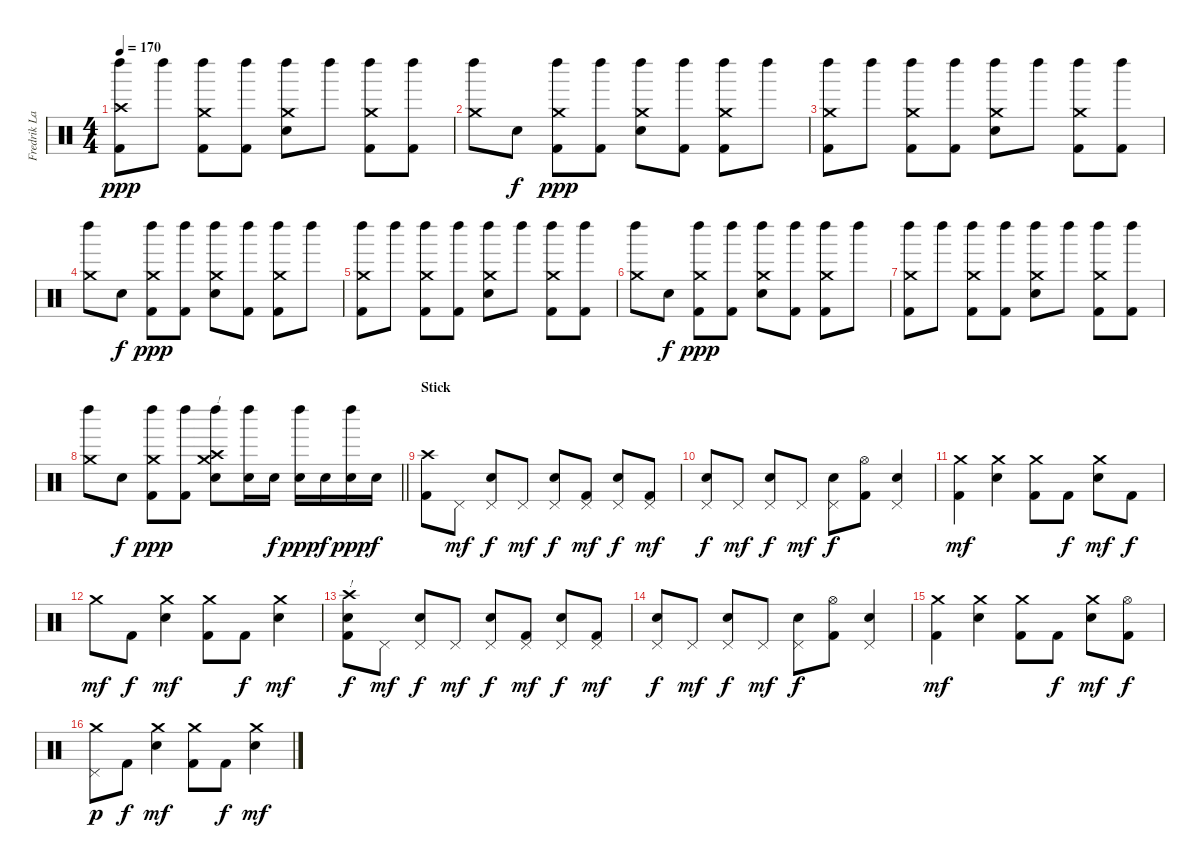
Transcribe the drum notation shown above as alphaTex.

\track ("Fredrik Larzon - Percussion" "Fredrik La") {instrument percussion}
\staff {score}
\articulation defaults
\ts (4 4)
\tempo 170
\clef neutral
\ks c
("Crash high (hit)" "Left Maraca (hit)" "Kick (hit) 2").8{dy ppp} "Left Maraca (hit)".8 ("Crash medium (hit)" "Left Maraca (hit)" "Kick (hit) 2").8 ("Left Maraca (hit)" "Kick (hit) 2").8 ("Crash medium (hit)" "Left Maraca (hit)" "Electric Snare (hit)").8 "Left Maraca (hit)".8 ("Crash medium (hit)" "Left Maraca (hit)" "Kick (hit) 2").8 ("Left Maraca (hit)" "Kick (hit) 2").8 |
("Crash medium (hit)" "Left Maraca (hit)").8 "Electric Snare (hit)".8{dy f} ("Crash medium (hit)" "Left Maraca (hit)" "Kick (hit) 2").8{dy ppp} ("Left Maraca (hit)" "Kick (hit) 2").8 ("Crash medium (hit)" "Left Maraca (hit)" "Electric Snare (hit)").8 ("Left Maraca (hit)" "Kick (hit) 2").8 ("Crash medium (hit)" "Left Maraca (hit)" "Kick (hit) 2").8 "Left Maraca (hit)".8 |
("Crash medium (hit)" "Left Maraca (hit)" "Kick (hit) 2").8 "Left Maraca (hit)".8 ("Crash medium (hit)" "Left Maraca (hit)" "Kick (hit) 2").8 ("Left Maraca (hit)" "Kick (hit) 2").8 ("Crash medium (hit)" "Left Maraca (hit)" "Electric Snare (hit)").8 "Left Maraca (hit)".8 ("Crash medium (hit)" "Left Maraca (hit)" "Kick (hit) 2").8 ("Left Maraca (hit)" "Kick (hit) 2").8 |
("Crash medium (hit)" "Left Maraca (hit)").8 "Electric Snare (hit)".8{dy f} ("Crash medium (hit)" "Left Maraca (hit)" "Kick (hit) 2").8{dy ppp} ("Left Maraca (hit)" "Kick (hit) 2").8 ("Crash medium (hit)" "Left Maraca (hit)" "Electric Snare (hit)").8 ("Left Maraca (hit)" "Kick (hit) 2").8 ("Crash medium (hit)" "Left Maraca (hit)" "Kick (hit) 2").8 "Left Maraca (hit)".8 |
("Crash medium (hit)" "Left Maraca (hit)" "Kick (hit) 2").8 "Left Maraca (hit)".8 ("Crash medium (hit)" "Left Maraca (hit)" "Kick (hit) 2").8 ("Left Maraca (hit)" "Kick (hit) 2").8 ("Crash medium (hit)" "Left Maraca (hit)" "Electric Snare (hit)").8 "Left Maraca (hit)".8 ("Crash medium (hit)" "Left Maraca (hit)" "Kick (hit) 2").8 ("Left Maraca (hit)" "Kick (hit) 2").8 |
("Crash medium (hit)" "Left Maraca (hit)").8 "Electric Snare (hit)".8{dy f} ("Crash medium (hit)" "Left Maraca (hit)" "Kick (hit) 2").8{dy ppp} ("Left Maraca (hit)" "Kick (hit) 2").8 ("Crash medium (hit)" "Left Maraca (hit)" "Electric Snare (hit)").8 ("Left Maraca (hit)" "Kick (hit) 2").8 ("Crash medium (hit)" "Left Maraca (hit)" "Kick (hit) 2").8 "Left Maraca (hit)".8 |
("Crash medium (hit)" "Left Maraca (hit)" "Kick (hit) 2").8 "Left Maraca (hit)".8 ("Crash medium (hit)" "Left Maraca (hit)" "Kick (hit) 2").8 ("Left Maraca (hit)" "Kick (hit) 2").8 ("Crash medium (hit)" "Left Maraca (hit)" "Electric Snare (hit)").8 "Left Maraca (hit)".8 ("Crash medium (hit)" "Left Maraca (hit)" "Kick (hit) 2").8 ("Left Maraca (hit)" "Kick (hit) 2").8 |
\barLineRight lightlight
("Crash medium (hit)" "Left Maraca (hit)").8 "Electric Snare (hit)".8{dy f} ("Crash medium (hit)" "Left Maraca (hit)" "Kick (hit) 2").8{dy ppp} ("Left Maraca (hit)" "Kick (hit) 2").8 ("Crash high (hit)" "Crash medium (hit)" "Left Maraca (hit)" "Electric Snare (hit)").8{txt "!"} ("Left Maraca (hit)" "Electric Snare (hit)").16 "Electric Snare (hit)".16{dy f} ("Left Maraca (hit)" "Electric Snare (hit)").16{dy ppp} "Electric Snare (hit)".16{dy f} ("Left Maraca (hit)" "Electric Snare (hit)").16{dy ppp} "Electric Snare (hit)".16{dy f} |
\section ("" "Stick")
("Crash high (hit)" "Kick (hit) 2").8 "Pedal Hi-Hat (hit)".8{dy mf} ("Pedal Hi-Hat (hit)" "Electric Snare (hit)").8{dy f} "Pedal Hi-Hat (hit)".8{dy mf} ("Pedal Hi-Hat (hit)" "Electric Snare (hit)").8{dy f} ("Pedal Hi-Hat (hit)" "Kick (hit) 2").8{dy mf} ("Pedal Hi-Hat (hit)" "Electric Snare (hit)").8{dy f} ("Pedal Hi-Hat (hit)" "Kick (hit) 2").8{dy mf} |
("Pedal Hi-Hat (hit)" "Electric Snare (hit)").8{dy f} "Pedal Hi-Hat (hit)".8{dy mf} ("Pedal Hi-Hat (hit)" "Electric Snare (hit)").8{dy f} "Pedal Hi-Hat (hit)".8{dy mf} ("Pedal Hi-Hat (hit)" "Electric Snare (hit)").8{dy f} ("Hi-Hat (open)" "Kick (hit) 2").8 ("Pedal Hi-Hat (hit)" "Electric Snare (hit)").4 |
("Crash medium (hit)" "Kick (hit) 2").4{dy mf} ("Crash medium (hit)" "Electric Snare (hit)").4 ("Crash medium (hit)" "Kick (hit) 2").8 "Kick (hit) 2".8{dy f} ("Crash medium (hit)" "Electric Snare (hit)").8{dy mf} "Kick (hit) 2".8{dy f} |
"Crash medium (hit)".8{dy mf} "Kick (hit) 2".8{dy f} ("Crash medium (hit)" "Electric Snare (hit)").4{dy mf} ("Crash medium (hit)" "Kick (hit) 2").8 "Kick (hit) 2".8{dy f} ("Crash medium (hit)" "Electric Snare (hit)").4{dy mf} |
("Crash high (hit)" "Electric Snare (hit)" "Kick (hit) 2").8{txt "!" dy f} "Pedal Hi-Hat (hit)".8{dy mf} ("Pedal Hi-Hat (hit)" "Electric Snare (hit)").8{dy f} "Pedal Hi-Hat (hit)".8{dy mf} ("Pedal Hi-Hat (hit)" "Electric Snare (hit)").8{dy f} ("Pedal Hi-Hat (hit)" "Kick (hit) 2").8{dy mf} ("Pedal Hi-Hat (hit)" "Electric Snare (hit)").8{dy f} ("Pedal Hi-Hat (hit)" "Kick (hit) 2").8{dy mf} |
("Pedal Hi-Hat (hit)" "Electric Snare (hit)").8{dy f} "Pedal Hi-Hat (hit)".8{dy mf} ("Pedal Hi-Hat (hit)" "Electric Snare (hit)").8{dy f} "Pedal Hi-Hat (hit)".8{dy mf} ("Pedal Hi-Hat (hit)" "Electric Snare (hit)").8{dy f} ("Hi-Hat (open)" "Kick (hit) 2").8 ("Pedal Hi-Hat (hit)" "Electric Snare (hit)").4 |
("Crash medium (hit)" "Kick (hit) 2").4{dy mf} ("Crash medium (hit)" "Electric Snare (hit)").4 ("Crash medium (hit)" "Kick (hit) 2").8 "Kick (hit) 2".8{dy f} ("Crash medium (hit)" "Electric Snare (hit)").8{dy mf} ("Hi-Hat (open)" "Kick (hit) 2").8{dy f} |
("Crash medium (hit)" "Pedal Hi-Hat (hit)").8{dy p} "Kick (hit) 2".8{dy f} ("Crash medium (hit)" "Electric Snare (hit)").4{dy mf} ("Crash medium (hit)" "Kick (hit) 2").8 "Kick (hit) 2".8{dy f} ("Crash medium (hit)" "Electric Snare (hit)").4{dy mf}
